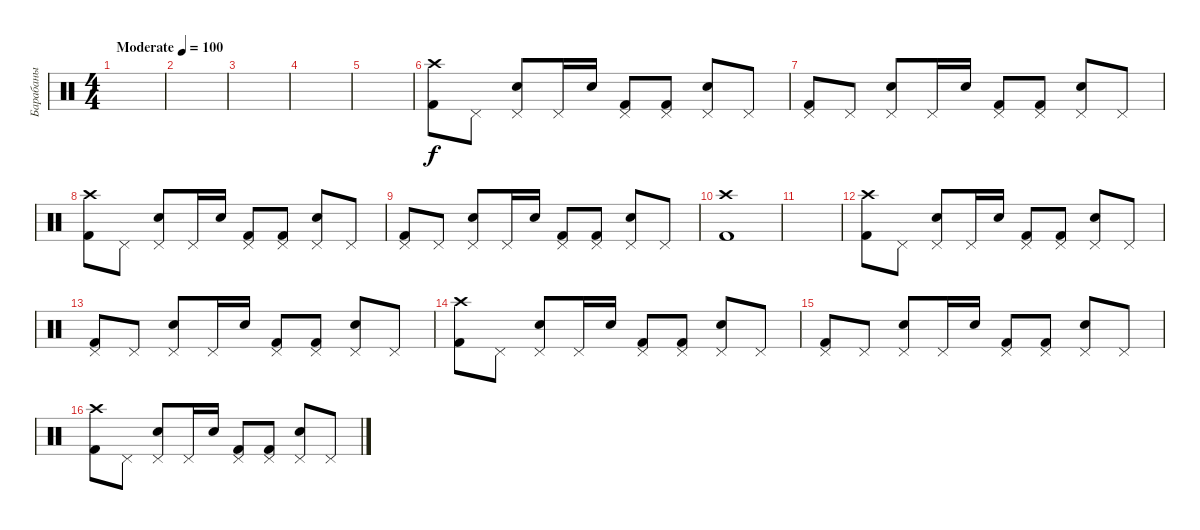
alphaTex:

\track ("Барабаны" "Барабаны") {instrument percussion}
\staff {score}
\articulation defaults
\ts (4 4)
\tempo (100 "Moderate")
\clef neutral
\ks c
|
|
|
|
|
("Crash high (hit)" "Kick (hit) 2").8 "Pedal Hi-Hat (hit)".8 ("Pedal Hi-Hat (hit)" "Electric Snare (hit)").8 "Pedal Hi-Hat (hit)".16 "Electric Snare (hit)".16 ("Pedal Hi-Hat (hit)" "Kick (hit) 2").8 ("Pedal Hi-Hat (hit)" "Kick (hit) 2").8 ("Pedal Hi-Hat (hit)" "Electric Snare (hit)").8 "Pedal Hi-Hat (hit)".8 |
("Pedal Hi-Hat (hit)" "Kick (hit) 2").8 "Pedal Hi-Hat (hit)".8 ("Pedal Hi-Hat (hit)" "Electric Snare (hit)").8 "Pedal Hi-Hat (hit)".16 "Electric Snare (hit)".16 ("Pedal Hi-Hat (hit)" "Kick (hit) 2").8 ("Pedal Hi-Hat (hit)" "Kick (hit) 2").8 ("Pedal Hi-Hat (hit)" "Electric Snare (hit)").8 "Pedal Hi-Hat (hit)".8 |
("Crash high (hit)" "Kick (hit) 2").8 "Pedal Hi-Hat (hit)".8 ("Pedal Hi-Hat (hit)" "Electric Snare (hit)").8 "Pedal Hi-Hat (hit)".16 "Electric Snare (hit)".16 ("Pedal Hi-Hat (hit)" "Kick (hit) 2").8 ("Pedal Hi-Hat (hit)" "Kick (hit) 2").8 ("Pedal Hi-Hat (hit)" "Electric Snare (hit)").8 "Pedal Hi-Hat (hit)".8 |
("Pedal Hi-Hat (hit)" "Kick (hit) 2").8 "Pedal Hi-Hat (hit)".8 ("Pedal Hi-Hat (hit)" "Electric Snare (hit)").8 "Pedal Hi-Hat (hit)".16 "Electric Snare (hit)".16 ("Pedal Hi-Hat (hit)" "Kick (hit) 2").8 ("Pedal Hi-Hat (hit)" "Kick (hit) 2").8 ("Pedal Hi-Hat (hit)" "Electric Snare (hit)").8 "Pedal Hi-Hat (hit)".8 |
("Crash high (hit)" "Kick (hit) 2").1 |
|
("Crash high (hit)" "Kick (hit) 2").8 "Pedal Hi-Hat (hit)".8 ("Pedal Hi-Hat (hit)" "Electric Snare (hit)").8 "Pedal Hi-Hat (hit)".16 "Electric Snare (hit)".16 ("Pedal Hi-Hat (hit)" "Kick (hit) 2").8 ("Pedal Hi-Hat (hit)" "Kick (hit) 2").8 ("Pedal Hi-Hat (hit)" "Electric Snare (hit)").8 "Pedal Hi-Hat (hit)".8 |
("Pedal Hi-Hat (hit)" "Kick (hit) 2").8 "Pedal Hi-Hat (hit)".8 ("Pedal Hi-Hat (hit)" "Electric Snare (hit)").8 "Pedal Hi-Hat (hit)".16 "Electric Snare (hit)".16 ("Pedal Hi-Hat (hit)" "Kick (hit) 2").8 ("Pedal Hi-Hat (hit)" "Kick (hit) 2").8 ("Pedal Hi-Hat (hit)" "Electric Snare (hit)").8 "Pedal Hi-Hat (hit)".8 |
("Crash high (hit)" "Kick (hit) 2").8 "Pedal Hi-Hat (hit)".8 ("Pedal Hi-Hat (hit)" "Electric Snare (hit)").8 "Pedal Hi-Hat (hit)".16 "Electric Snare (hit)".16 ("Pedal Hi-Hat (hit)" "Kick (hit) 2").8 ("Pedal Hi-Hat (hit)" "Kick (hit) 2").8 ("Pedal Hi-Hat (hit)" "Electric Snare (hit)").8 "Pedal Hi-Hat (hit)".8 |
("Pedal Hi-Hat (hit)" "Kick (hit) 2").8 "Pedal Hi-Hat (hit)".8 ("Pedal Hi-Hat (hit)" "Electric Snare (hit)").8 "Pedal Hi-Hat (hit)".16 "Electric Snare (hit)".16 ("Pedal Hi-Hat (hit)" "Kick (hit) 2").8 ("Pedal Hi-Hat (hit)" "Kick (hit) 2").8 ("Pedal Hi-Hat (hit)" "Electric Snare (hit)").8 "Pedal Hi-Hat (hit)".8 |
("Crash high (hit)" "Kick (hit) 2").8 "Pedal Hi-Hat (hit)".8 ("Pedal Hi-Hat (hit)" "Electric Snare (hit)").8 "Pedal Hi-Hat (hit)".16 "Electric Snare (hit)".16 ("Pedal Hi-Hat (hit)" "Kick (hit) 2").8 ("Pedal Hi-Hat (hit)" "Kick (hit) 2").8 ("Pedal Hi-Hat (hit)" "Electric Snare (hit)").8 "Pedal Hi-Hat (hit)".8
